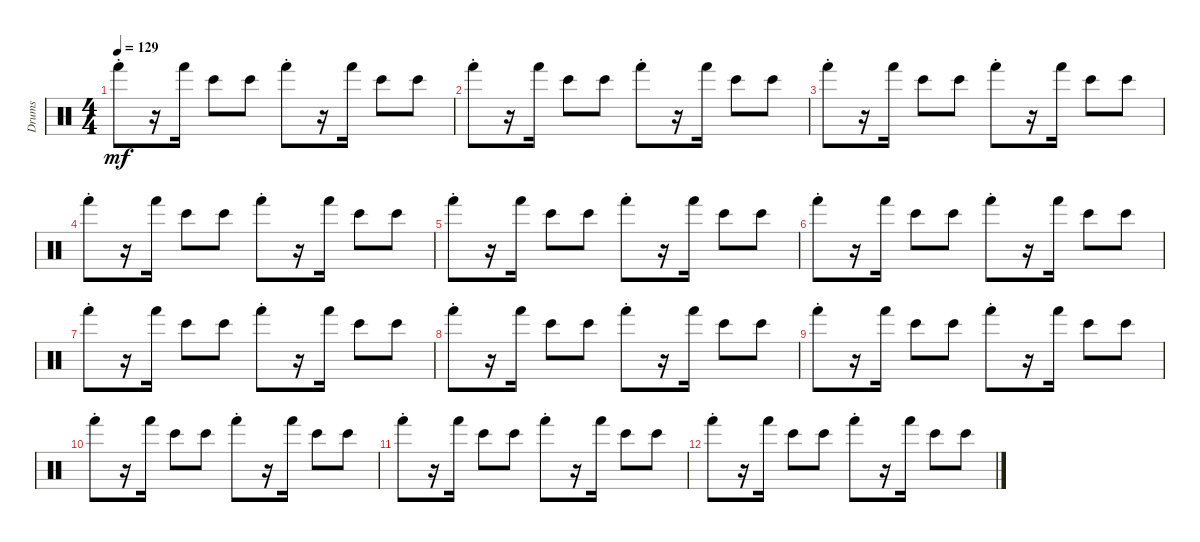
\track ("Drums" "Drums") {instrument percussion}
\staff {score}
\articulation defaults
\ts (4 4)
\tempo 129
\clef neutral
\ks c "Hand (hit)"{st}.8{dy mf}
r.16 "Hand (hit)".16 "Bongo High (hit)".8 "Bongo High (hit)".8 "Hand (hit)"{st}.8 r.16 "Hand (hit)".16 "Bongo High (hit)".8 "Bongo High (hit)".8 |
"Hand (hit)"{st}.8 r.16 "Hand (hit)".16 "Bongo High (hit)".8 "Bongo High (hit)".8 "Hand (hit)"{st}.8 r.16 "Hand (hit)".16 "Bongo High (hit)".8 "Bongo High (hit)".8 |
"Hand (hit)"{st}.8 r.16 "Hand (hit)".16 "Bongo High (hit)".8 "Bongo High (hit)".8 "Hand (hit)"{st}.8 r.16 "Hand (hit)".16 "Bongo High (hit)".8 "Bongo High (hit)".8 |
"Hand (hit)"{st}.8 r.16 "Hand (hit)".16 "Bongo High (hit)".8 "Bongo High (hit)".8 "Hand (hit)"{st}.8 r.16 "Hand (hit)".16 "Bongo High (hit)".8 "Bongo High (hit)".8 |
"Hand (hit)"{st}.8 r.16 "Hand (hit)".16 "Bongo High (hit)".8 "Bongo High (hit)".8 "Hand (hit)"{st}.8 r.16 "Hand (hit)".16 "Bongo High (hit)".8 "Bongo High (hit)".8 |
"Hand (hit)"{st}.8 r.16 "Hand (hit)".16 "Bongo High (hit)".8 "Bongo High (hit)".8 "Hand (hit)"{st}.8 r.16 "Hand (hit)".16 "Bongo High (hit)".8 "Bongo High (hit)".8 |
"Hand (hit)"{st}.8 r.16 "Hand (hit)".16 "Bongo High (hit)".8 "Bongo High (hit)".8 "Hand (hit)"{st}.8 r.16 "Hand (hit)".16 "Bongo High (hit)".8 "Bongo High (hit)".8 |
"Hand (hit)"{st}.8 r.16 "Hand (hit)".16 "Bongo High (hit)".8 "Bongo High (hit)".8 "Hand (hit)"{st}.8 r.16 "Hand (hit)".16 "Bongo High (hit)".8 "Bongo High (hit)".8 |
"Hand (hit)"{st}.8 r.16 "Hand (hit)".16 "Bongo High (hit)".8 "Bongo High (hit)".8 "Hand (hit)"{st}.8 r.16 "Hand (hit)".16 "Bongo High (hit)".8 "Bongo High (hit)".8 |
"Hand (hit)"{st}.8 r.16 "Hand (hit)".16 "Bongo High (hit)".8 "Bongo High (hit)".8 "Hand (hit)"{st}.8 r.16 "Hand (hit)".16 "Bongo High (hit)".8 "Bongo High (hit)".8 |
"Hand (hit)"{st}.8 r.16 "Hand (hit)".16 "Bongo High (hit)".8 "Bongo High (hit)".8 "Hand (hit)"{st}.8 r.16 "Hand (hit)".16 "Bongo High (hit)".8 "Bongo High (hit)".8 |
"Hand (hit)"{st}.8 r.16 "Hand (hit)".16 "Bongo High (hit)".8 "Bongo High (hit)".8 "Hand (hit)"{st}.8 r.16 "Hand (hit)".16 "Bongo High (hit)".8 "Bongo High (hit)".8
